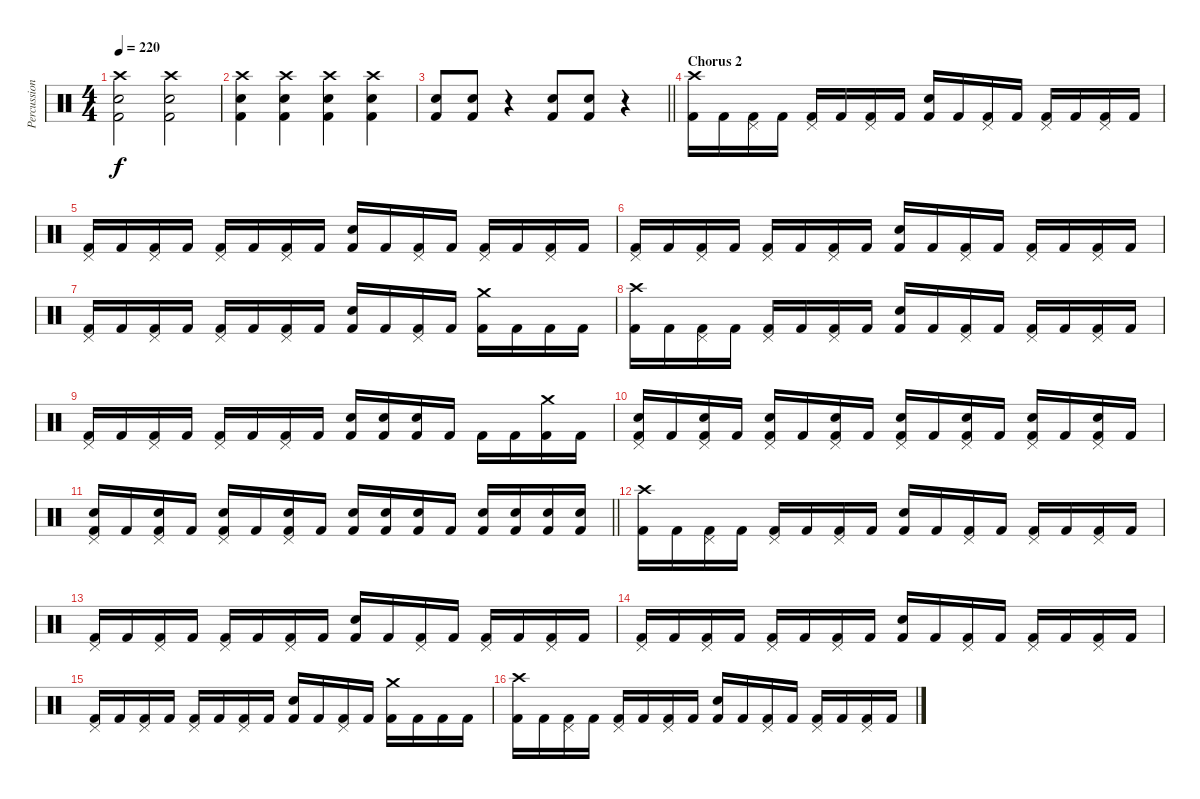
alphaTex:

\track ("Percussion" "Percussion") {instrument percussion}
\staff {score}
\articulation defaults
\ts (4 4)
\tempo 220
\clef neutral
\ks c
("Crash high (hit)" "Snare (hit) 2" "Kick (hit) 2").2{dy f} ("Crash high (hit)" "Snare (hit) 2" "Kick (hit) 2").2 |
("Crash high (hit)" "Snare (hit) 2" "Kick (hit) 2").4 ("Crash high (hit)" "Snare (hit) 2" "Kick (hit) 2").4 ("Crash high (hit)" "Snare (hit) 2" "Kick (hit) 2").4 ("Crash high (hit)" "Snare (hit) 2" "Kick (hit) 2").4 |
\barLineRight lightlight
("Snare (hit) 2" "Kick (hit) 2").8 ("Snare (hit) 2" "Kick (hit) 2").8 r.4 ("Snare (hit) 2" "Kick (hit) 2").8 ("Snare (hit) 2" "Kick (hit) 2").8 r.4 |
\section ("" "Chorus 2")
("Crash high (hit)" "Kick (hit) 2").16 "Kick (hit) 2".16 ("Pedal Hi-Hat (hit)" "Kick (hit) 2").16 "Kick (hit) 2".16 ("Pedal Hi-Hat (hit)" "Kick (hit) 2").16 "Kick (hit) 2".16 ("Pedal Hi-Hat (hit)" "Kick (hit) 2").16 "Kick (hit) 2".16 ("Snare (hit) 2" "Kick (hit) 2").16 "Kick (hit) 2".16 ("Pedal Hi-Hat (hit)" "Kick (hit) 2").16 "Kick (hit) 2".16 ("Pedal Hi-Hat (hit)" "Kick (hit) 2").16 "Kick (hit) 2".16 ("Pedal Hi-Hat (hit)" "Kick (hit) 2").16 "Kick (hit) 2".16 |
("Pedal Hi-Hat (hit)" "Kick (hit) 2").16 "Kick (hit) 2".16 ("Pedal Hi-Hat (hit)" "Kick (hit) 2").16 "Kick (hit) 2".16 ("Pedal Hi-Hat (hit)" "Kick (hit) 2").16 "Kick (hit) 2".16 ("Pedal Hi-Hat (hit)" "Kick (hit) 2").16 "Kick (hit) 2".16 ("Snare (hit) 2" "Kick (hit) 2").16 "Kick (hit) 2".16 ("Pedal Hi-Hat (hit)" "Kick (hit) 2").16 "Kick (hit) 2".16 ("Pedal Hi-Hat (hit)" "Kick (hit) 2").16 "Kick (hit) 2".16 ("Pedal Hi-Hat (hit)" "Kick (hit) 2").16 "Kick (hit) 2".16 |
("Pedal Hi-Hat (hit)" "Kick (hit) 2").16 "Kick (hit) 2".16 ("Pedal Hi-Hat (hit)" "Kick (hit) 2").16 "Kick (hit) 2".16 ("Pedal Hi-Hat (hit)" "Kick (hit) 2").16 "Kick (hit) 2".16 ("Pedal Hi-Hat (hit)" "Kick (hit) 2").16 "Kick (hit) 2".16 ("Snare (hit) 2" "Kick (hit) 2").16 "Kick (hit) 2".16 ("Pedal Hi-Hat (hit)" "Kick (hit) 2").16 "Kick (hit) 2".16 ("Pedal Hi-Hat (hit)" "Kick (hit) 2").16 "Kick (hit) 2".16 ("Pedal Hi-Hat (hit)" "Kick (hit) 2").16 "Kick (hit) 2".16 |
("Pedal Hi-Hat (hit)" "Kick (hit) 2").16 "Kick (hit) 2".16 ("Pedal Hi-Hat (hit)" "Kick (hit) 2").16 "Kick (hit) 2".16 ("Pedal Hi-Hat (hit)" "Kick (hit) 2").16 "Kick (hit) 2".16 ("Pedal Hi-Hat (hit)" "Kick (hit) 2").16 "Kick (hit) 2".16 ("Snare (hit) 2" "Kick (hit) 2").16 "Kick (hit) 2".16 ("Pedal Hi-Hat (hit)" "Kick (hit) 2").16 "Kick (hit) 2".16 ("Crash medium (hit)" "Kick (hit) 2").16 "Kick (hit) 2".16 "Kick (hit) 2".16 "Kick (hit) 2".16 |
("Crash high (hit)" "Kick (hit) 2").16 "Kick (hit) 2".16 ("Pedal Hi-Hat (hit)" "Kick (hit) 2").16 "Kick (hit) 2".16 ("Pedal Hi-Hat (hit)" "Kick (hit) 2").16 "Kick (hit) 2".16 ("Pedal Hi-Hat (hit)" "Kick (hit) 2").16 "Kick (hit) 2".16 ("Snare (hit) 2" "Kick (hit) 2").16 "Kick (hit) 2".16 ("Pedal Hi-Hat (hit)" "Kick (hit) 2").16 "Kick (hit) 2".16 ("Pedal Hi-Hat (hit)" "Kick (hit) 2").16 "Kick (hit) 2".16 ("Pedal Hi-Hat (hit)" "Kick (hit) 2").16 "Kick (hit) 2".16 |
("Pedal Hi-Hat (hit)" "Kick (hit) 2").16 "Kick (hit) 2".16 ("Pedal Hi-Hat (hit)" "Kick (hit) 2").16 "Kick (hit) 2".16 ("Pedal Hi-Hat (hit)" "Kick (hit) 2").16 "Kick (hit) 2".16 ("Pedal Hi-Hat (hit)" "Kick (hit) 2").16 "Kick (hit) 2".16 ("Snare (hit) 2" "Kick (hit) 2").16 ("Snare (hit) 2" "Kick (hit) 2").16 ("Snare (hit) 2" "Kick (hit) 2").16 "Kick (hit) 2".16 "Kick (hit) 2".16 "Kick (hit) 2".16 ("Crash medium (hit)" "Kick (hit) 2").16 "Kick (hit) 2".16 |
("Pedal Hi-Hat (hit)" "Snare (hit) 2" "Kick (hit) 2").16 "Kick (hit) 2".16 ("Pedal Hi-Hat (hit)" "Snare (hit) 2" "Kick (hit) 2").16 "Kick (hit) 2".16 ("Pedal Hi-Hat (hit)" "Snare (hit) 2" "Kick (hit) 2").16 "Kick (hit) 2".16 ("Pedal Hi-Hat (hit)" "Snare (hit) 2" "Kick (hit) 2").16 "Kick (hit) 2".16 ("Pedal Hi-Hat (hit)" "Snare (hit) 2" "Kick (hit) 2").16 "Kick (hit) 2".16 ("Pedal Hi-Hat (hit)" "Snare (hit) 2" "Kick (hit) 2").16 "Kick (hit) 2".16 ("Pedal Hi-Hat (hit)" "Snare (hit) 2" "Kick (hit) 2").16 "Kick (hit) 2".16 ("Pedal Hi-Hat (hit)" "Snare (hit) 2" "Kick (hit) 2").16 "Kick (hit) 2".16 |
\barLineRight lightlight
("Pedal Hi-Hat (hit)" "Snare (hit) 2" "Kick (hit) 2").16 "Kick (hit) 2".16 ("Pedal Hi-Hat (hit)" "Snare (hit) 2" "Kick (hit) 2").16 "Kick (hit) 2".16 ("Pedal Hi-Hat (hit)" "Snare (hit) 2" "Kick (hit) 2").16 "Kick (hit) 2".16 ("Pedal Hi-Hat (hit)" "Snare (hit) 2" "Kick (hit) 2").16 "Kick (hit) 2".16 ("Snare (hit) 2" "Kick (hit) 2").16 ("Snare (hit) 2" "Kick (hit) 2").16 ("Snare (hit) 2" "Kick (hit) 2").16 "Kick (hit) 2".16 ("Snare (hit) 2" "Kick (hit) 2").16 ("Snare (hit) 2" "Kick (hit) 2").16 ("Snare (hit) 2" "Kick (hit) 2").16 ("Snare (hit) 2" "Kick (hit) 2").16 |
("Crash high (hit)" "Kick (hit) 2").16 "Kick (hit) 2".16 ("Pedal Hi-Hat (hit)" "Kick (hit) 2").16 "Kick (hit) 2".16 ("Pedal Hi-Hat (hit)" "Kick (hit) 2").16 "Kick (hit) 2".16 ("Pedal Hi-Hat (hit)" "Kick (hit) 2").16 "Kick (hit) 2".16 ("Snare (hit) 2" "Kick (hit) 2").16 "Kick (hit) 2".16 ("Pedal Hi-Hat (hit)" "Kick (hit) 2").16 "Kick (hit) 2".16 ("Pedal Hi-Hat (hit)" "Kick (hit) 2").16 "Kick (hit) 2".16 ("Pedal Hi-Hat (hit)" "Kick (hit) 2").16 "Kick (hit) 2".16 |
("Pedal Hi-Hat (hit)" "Kick (hit) 2").16 "Kick (hit) 2".16 ("Pedal Hi-Hat (hit)" "Kick (hit) 2").16 "Kick (hit) 2".16 ("Pedal Hi-Hat (hit)" "Kick (hit) 2").16 "Kick (hit) 2".16 ("Pedal Hi-Hat (hit)" "Kick (hit) 2").16 "Kick (hit) 2".16 ("Snare (hit) 2" "Kick (hit) 2").16 "Kick (hit) 2".16 ("Pedal Hi-Hat (hit)" "Kick (hit) 2").16 "Kick (hit) 2".16 ("Pedal Hi-Hat (hit)" "Kick (hit) 2").16 "Kick (hit) 2".16 ("Pedal Hi-Hat (hit)" "Kick (hit) 2").16 "Kick (hit) 2".16 |
("Pedal Hi-Hat (hit)" "Kick (hit) 2").16 "Kick (hit) 2".16 ("Pedal Hi-Hat (hit)" "Kick (hit) 2").16 "Kick (hit) 2".16 ("Pedal Hi-Hat (hit)" "Kick (hit) 2").16 "Kick (hit) 2".16 ("Pedal Hi-Hat (hit)" "Kick (hit) 2").16 "Kick (hit) 2".16 ("Snare (hit) 2" "Kick (hit) 2").16 "Kick (hit) 2".16 ("Pedal Hi-Hat (hit)" "Kick (hit) 2").16 "Kick (hit) 2".16 ("Pedal Hi-Hat (hit)" "Kick (hit) 2").16 "Kick (hit) 2".16 ("Pedal Hi-Hat (hit)" "Kick (hit) 2").16 "Kick (hit) 2".16 |
("Pedal Hi-Hat (hit)" "Kick (hit) 2").16 "Kick (hit) 2".16 ("Pedal Hi-Hat (hit)" "Kick (hit) 2").16 "Kick (hit) 2".16 ("Pedal Hi-Hat (hit)" "Kick (hit) 2").16 "Kick (hit) 2".16 ("Pedal Hi-Hat (hit)" "Kick (hit) 2").16 "Kick (hit) 2".16 ("Snare (hit) 2" "Kick (hit) 2").16 "Kick (hit) 2".16 ("Pedal Hi-Hat (hit)" "Kick (hit) 2").16 "Kick (hit) 2".16 ("Crash medium (hit)" "Kick (hit) 2").16 "Kick (hit) 2".16 "Kick (hit) 2".16 "Kick (hit) 2".16 |
("Crash high (hit)" "Kick (hit) 2").16 "Kick (hit) 2".16 ("Pedal Hi-Hat (hit)" "Kick (hit) 2").16 "Kick (hit) 2".16 ("Pedal Hi-Hat (hit)" "Kick (hit) 2").16 "Kick (hit) 2".16 ("Pedal Hi-Hat (hit)" "Kick (hit) 2").16 "Kick (hit) 2".16 ("Snare (hit) 2" "Kick (hit) 2").16 "Kick (hit) 2".16 ("Pedal Hi-Hat (hit)" "Kick (hit) 2").16 "Kick (hit) 2".16 ("Pedal Hi-Hat (hit)" "Kick (hit) 2").16 "Kick (hit) 2".16 ("Pedal Hi-Hat (hit)" "Kick (hit) 2").16 "Kick (hit) 2".16
